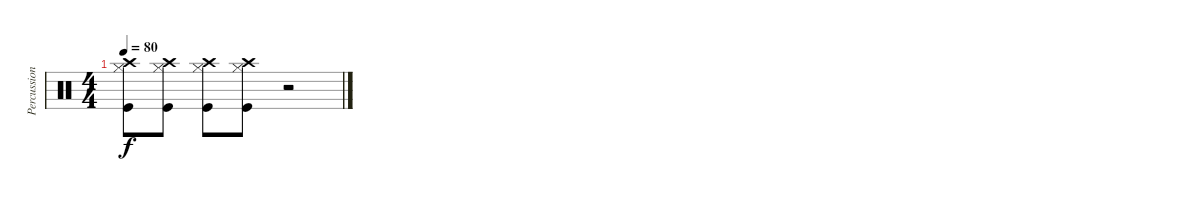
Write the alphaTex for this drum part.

\track ("Percussion" "Percussion") {instrument percussion}
\staff {score}
\articulation defaults
\ts (4 4)
\tempo 80
\clef neutral
\ks c
("Crash high (hit)" "Kick (hit)" "Hi-Hat (closed)").8{dy f} ("Crash high (hit)" "Kick (hit)" "Hi-Hat (closed)").8 ("Crash high (hit)" "Kick (hit)" "Hi-Hat (closed)").8 ("Crash high (hit)" "Kick (hit)" "Hi-Hat (closed)").8 r.2
